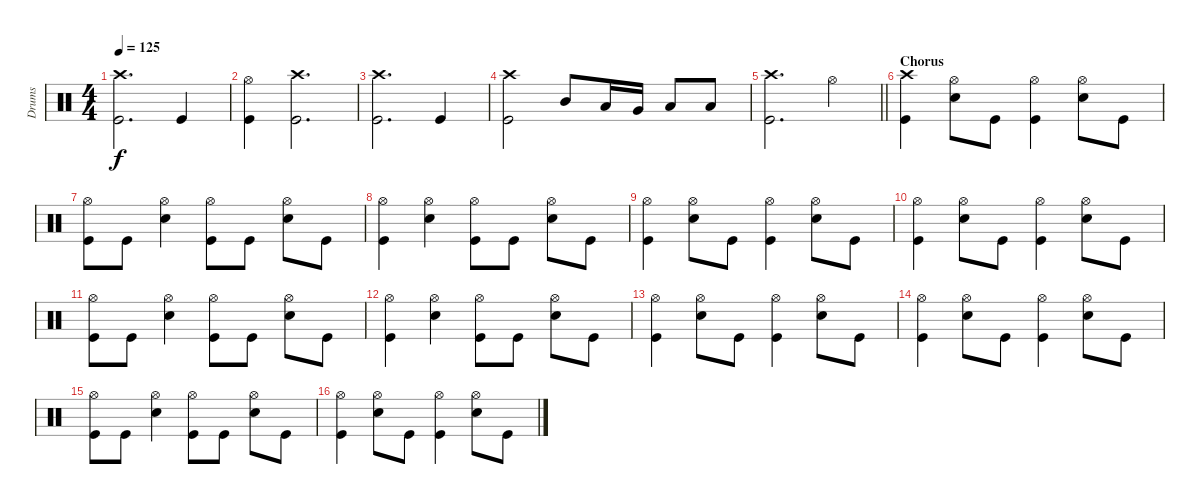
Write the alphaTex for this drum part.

\track ("Drums" "Drums") {instrument percussion}
\staff {score}
\articulation defaults
\ts (4 4)
\tempo 125
\clef neutral
\ks c
("Crash high (hit)" "Kick (hit)").2{d dy f} "Kick (hit)".4 |
("Hi-Hat (open)" "Kick (hit)").4 ("Crash high (hit)" "Kick (hit)").2{d} |
("Crash high (hit)" "Kick (hit)").2{d} "Kick (hit)".4 |
("Crash high (hit)" "Kick (hit)").2 "Mid Tom (hit)".8 "Low Tom (hit)".16 "Very Low Tom (hit)".16 "Low Floor Tom (hit)".8 "Low Floor Tom (hit)".8 |
\barLineRight lightlight
("Crash high (hit)" "Kick (hit)").2{d} "Hi-Hat (open)".4 |
\section ("" "Chorus ")
("Crash high (hit)" "Kick (hit)").4 ("Hi-Hat (open)" "Electric Snare (hit)").8 "Kick (hit)".8 ("Hi-Hat (open)" "Kick (hit)").4 ("Hi-Hat (open)" "Electric Snare (hit)").8 "Kick (hit)".8 |
("Hi-Hat (open)" "Kick (hit)").8 "Kick (hit)".8 ("Hi-Hat (open)" "Electric Snare (hit)").4 ("Hi-Hat (open)" "Kick (hit)").8 "Kick (hit)".8 ("Hi-Hat (open)" "Electric Snare (hit)").8 "Kick (hit)".8 |
("Hi-Hat (open)" "Kick (hit)").4 ("Hi-Hat (open)" "Electric Snare (hit)").4 ("Hi-Hat (open)" "Kick (hit)").8 "Kick (hit)".8 ("Hi-Hat (open)" "Electric Snare (hit)").8 "Kick (hit)".8 |
("Hi-Hat (open)" "Kick (hit)").4 ("Hi-Hat (open)" "Electric Snare (hit)").8 "Kick (hit)".8 ("Hi-Hat (open)" "Kick (hit)").4 ("Hi-Hat (open)" "Electric Snare (hit)").8 "Kick (hit)".8 |
("Hi-Hat (open)" "Kick (hit)").4 ("Hi-Hat (open)" "Electric Snare (hit)").8 "Kick (hit)".8 ("Hi-Hat (open)" "Kick (hit)").4 ("Hi-Hat (open)" "Electric Snare (hit)").8 "Kick (hit)".8 |
("Hi-Hat (open)" "Kick (hit)").8 "Kick (hit)".8 ("Hi-Hat (open)" "Electric Snare (hit)").4 ("Hi-Hat (open)" "Kick (hit)").8 "Kick (hit)".8 ("Hi-Hat (open)" "Electric Snare (hit)").8 "Kick (hit)".8 |
("Hi-Hat (open)" "Kick (hit)").4 ("Hi-Hat (open)" "Electric Snare (hit)").4 ("Hi-Hat (open)" "Kick (hit)").8 "Kick (hit)".8 ("Hi-Hat (open)" "Electric Snare (hit)").8 "Kick (hit)".8 |
("Hi-Hat (open)" "Kick (hit)").4 ("Hi-Hat (open)" "Electric Snare (hit)").8 "Kick (hit)".8 ("Hi-Hat (open)" "Kick (hit)").4 ("Hi-Hat (open)" "Electric Snare (hit)").8 "Kick (hit)".8 |
("Hi-Hat (open)" "Kick (hit)").4 ("Hi-Hat (open)" "Electric Snare (hit)").8 "Kick (hit)".8 ("Hi-Hat (open)" "Kick (hit)").4 ("Hi-Hat (open)" "Electric Snare (hit)").8 "Kick (hit)".8 |
("Hi-Hat (open)" "Kick (hit)").8 "Kick (hit)".8 ("Hi-Hat (open)" "Electric Snare (hit)").4 ("Hi-Hat (open)" "Kick (hit)").8 "Kick (hit)".8 ("Hi-Hat (open)" "Electric Snare (hit)").8 "Kick (hit)".8 |
("Hi-Hat (open)" "Kick (hit)").4 ("Hi-Hat (open)" "Electric Snare (hit)").8 "Kick (hit)".8 ("Hi-Hat (open)" "Kick (hit)").4 ("Hi-Hat (open)" "Electric Snare (hit)").8 "Kick (hit)".8
